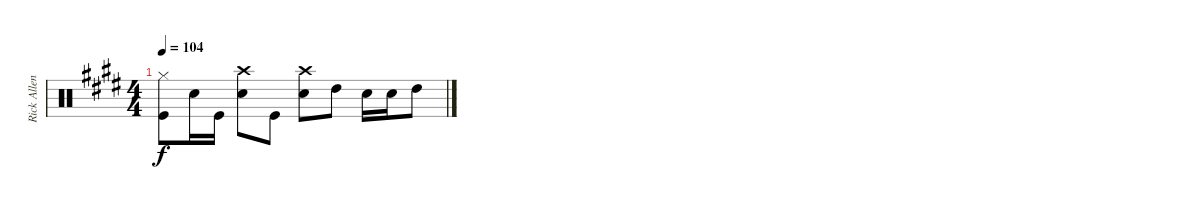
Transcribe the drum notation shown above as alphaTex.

\track ("Rick Allen" "Rick Allen") {instrument percussion}
\staff {score}
\articulation defaults
\ts (4 4)
\tempo 104
\clef neutral
\ks e
("Hi-Hat (closed)" "Kick (hit)").8{dy f} "Snare (hit) 2".16 "Kick (hit)".16 ("Crash high (hit)" "Snare (hit) 2").8 "Kick (hit)".8 ("Crash high (hit)" "Snare (hit) 2").8 "High Tom (hit)".8 "Snare (hit) 2".16 "Snare (hit) 2".16 "High Tom (hit)".8
